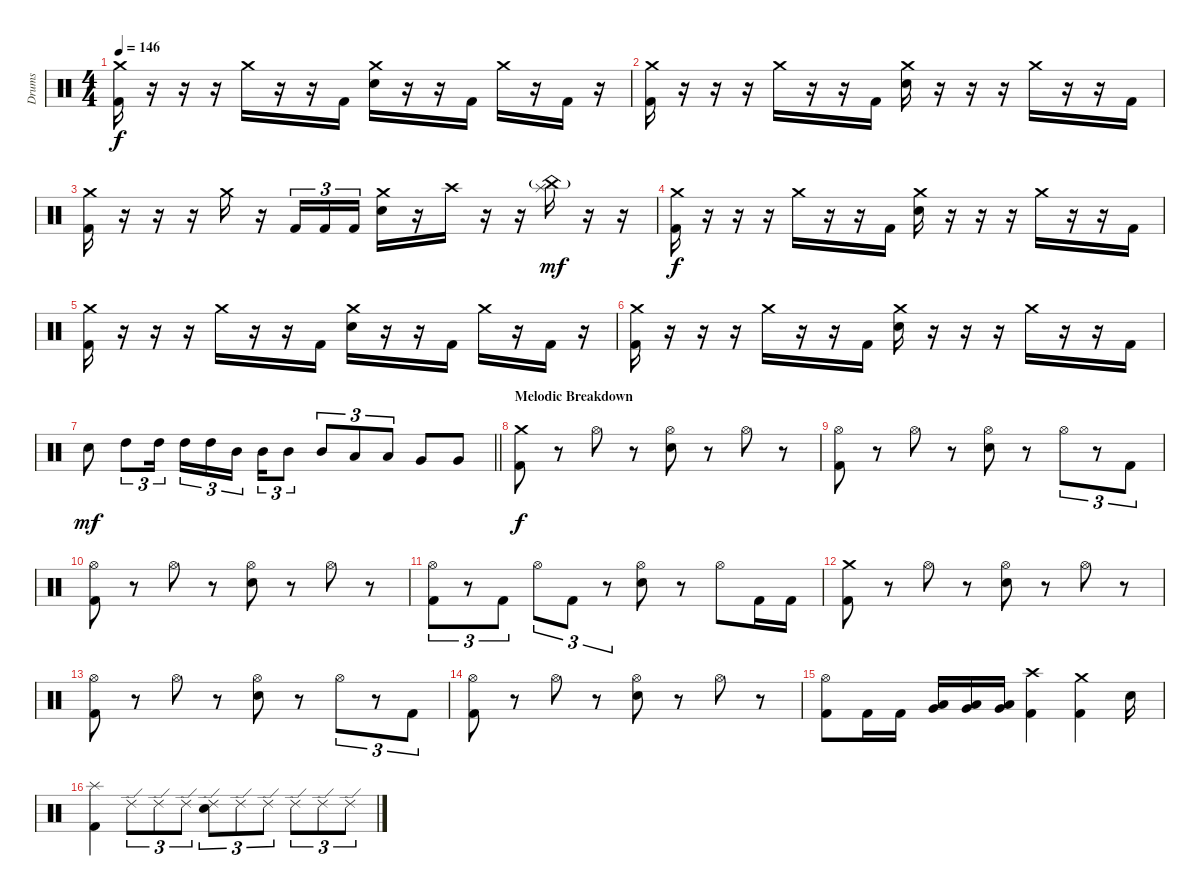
\track ("Drums" "Drums") {instrument percussion}
\staff {score}
\articulation defaults
\ts (4 4)
\tempo 146
\clef neutral
\ks c
("Crash medium (hit)" "Kick (hit) 2").16{dy f} r.16 r.16 r.16 "Crash medium (hit)".16 r.16 r.16 "Kick (hit) 2".16 ("Crash medium (hit)" "Electric Snare (hit)").16 r.16 r.16 "Kick (hit) 2".16 "Crash medium (hit)".16 r.16 "Kick (hit) 2".16 r.16 |
("Crash medium (hit)" "Kick (hit) 2").16 r.16 r.16 r.16 "Crash medium (hit)".16 r.16 r.16 "Kick (hit) 2".16 ("Crash medium (hit)" "Electric Snare (hit)").16 r.16 r.16 r.16 "Crash medium (hit)".16 r.16 r.16 "Kick (hit) 2".16 |
("Crash medium (hit)" "Kick (hit) 2").16 r.16 r.16 r.16 "Crash medium (hit)".16 r.16 "Kick (hit) 2".16{tu (3 2)} "Kick (hit) 2".16{tu (3 2)} "Kick (hit) 2".16{tu (3 2)} ("Crash medium (hit)" "Electric Snare (hit)").16 r.16 "Crash high (hit)".16 r.16 r.16 ("China (hit)"{g} "Splash (hit)").16{dy mf} r.16 r.16 |
("Crash medium (hit)" "Kick (hit) 2").16{dy f} r.16 r.16 r.16 "Crash medium (hit)".16 r.16 r.16 "Kick (hit) 2".16 ("Crash medium (hit)" "Electric Snare (hit)").16 r.16 r.16 r.16 "Crash medium (hit)".16 r.16 r.16 "Kick (hit) 2".16 |
("Crash medium (hit)" "Kick (hit) 2").16 r.16 r.16 r.16 "Crash medium (hit)".16 r.16 r.16 "Kick (hit) 2".16 ("Crash medium (hit)" "Electric Snare (hit)").16 r.16 r.16 "Kick (hit) 2".16 "Crash medium (hit)".16 r.16 "Kick (hit) 2".16 r.16 |
("Crash medium (hit)" "Kick (hit) 2").16 r.16 r.16 r.16 "Crash medium (hit)".16 r.16 r.16 "Kick (hit) 2".16 ("Crash medium (hit)" "Electric Snare (hit)").16 r.16 r.16 r.16 "Crash medium (hit)".16 r.16 r.16 "Kick (hit) 2".16 |
\barLineRight lightlight "Electric Snare (hit)".8{dy mf} "High Tom (hit)".8{tu (3 2)} "High Tom (hit)".16{tu (3 2)} "High Tom (hit)".16{tu (3 2)} "High Tom (hit)".16{tu (3 2)} "Mid Tom (hit)".16{tu (3 2) beam splitsecondary} "Mid Tom (hit)".16{tu (3 2)} "Mid Tom (hit)".8{tu (3 2)} "Mid Tom (hit)".8{tu (3 2)} "Low Tom (hit)".8{tu (3 2)} "Low Tom (hit)".8{tu (3 2)} "Very Low Tom (hit)".8 "Very Low Tom (hit)".8
|
\section ("" "Melodic Breakdown")
("Crash medium (hit)" "Kick (hit) 2").8{dy f} r.8 "Hi-Hat (open)".8 r.8 ("Hi-Hat (open)" "Electric Snare (hit)").8 r.8 "Hi-Hat (open)".8 r.8 |
("Hi-Hat (open)" "Kick (hit) 2").8 r.8 "Hi-Hat (open)".8 r.8 ("Hi-Hat (open)" "Electric Snare (hit)").8 r.8 "Hi-Hat (open)".8{tu (3 2)} r.8{tu (3 2)} "Kick (hit) 2".8{tu (3 2)} |
("Hi-Hat (open)" "Kick (hit) 2").8 r.8 "Hi-Hat (open)".8 r.8 ("Hi-Hat (open)" "Electric Snare (hit)").8 r.8 "Hi-Hat (open)".8 r.8 |
("Hi-Hat (open)" "Kick (hit) 2").8{tu (3 2)} r.8{tu (3 2)} "Kick (hit) 2".8{tu (3 2)} "Hi-Hat (open)".8{tu (3 2)} "Kick (hit) 2".8{tu (3 2)} r.8{tu (3 2)} ("Hi-Hat (open)" "Electric Snare (hit)").8 r.8 "Hi-Hat (open)".8 "Kick (hit) 2".16 "Kick (hit) 2".16 |
("Crash medium (hit)" "Kick (hit) 2").8 r.8 "Hi-Hat (open)".8 r.8 ("Hi-Hat (open)" "Electric Snare (hit)").8 r.8 "Hi-Hat (open)".8 r.8 |
("Hi-Hat (open)" "Kick (hit) 2").8 r.8 "Hi-Hat (open)".8 r.8 ("Hi-Hat (open)" "Electric Snare (hit)").8 r.8 "Hi-Hat (open)".8{tu (3 2)} r.8{tu (3 2)} "Kick (hit) 2".8{tu (3 2)} |
("Hi-Hat (open)" "Kick (hit) 2").8 r.8 "Hi-Hat (open)".8 r.8 ("Hi-Hat (open)" "Electric Snare (hit)").8 r.8 "Hi-Hat (open)".8 r.8 |
("Hi-Hat (open)" "Kick (hit) 2").8 "Kick (hit) 2".16 "Kick (hit) 2".16 ("Very Low Tom (hit)" "Low Floor Tom (hit)").16 ("Very Low Tom (hit)" "Low Floor Tom (hit)").16 ("Very Low Tom (hit)" "Low Floor Tom (hit)").16 ("Crash high (hit)" "Kick (hit) 2").4 ("Crash medium (hit)" "Kick (hit) 2").4 "Electric Snare (hit)".16 |
("Splash (hit)" "Kick (hit) 2").4 "Ride (edge) 2".8{tu (3 2)} "Ride (edge) 2".8{tu (3 2)} "Ride (edge) 2".8{tu (3 2)} ("Ride (edge) 2" "Electric Snare (hit)").8{tu (3 2)} "Ride (edge) 2".8{tu (3 2)} "Ride (edge) 2".8{tu (3 2)} "Ride (edge) 2".8{tu (3 2)} "Ride (edge) 2".8{tu (3 2)} "Ride (edge) 2".8{tu (3 2)}
